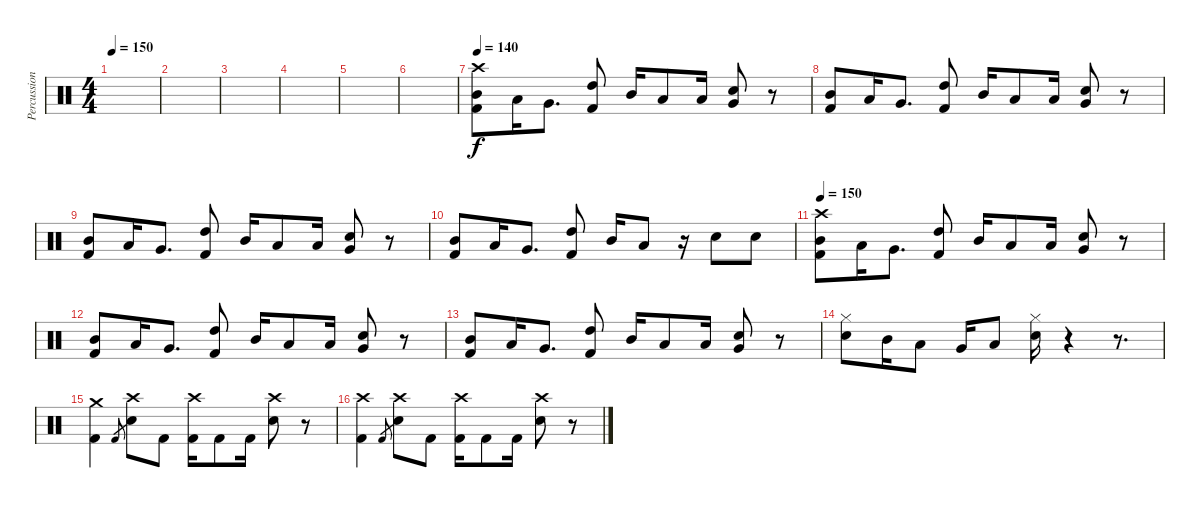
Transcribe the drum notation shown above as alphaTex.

\track ("Percussion" "Percussion") {instrument percussion}
\staff {score}
\articulation defaults
\ts (4 4)
\tempo 150
\clef neutral
\ks c
|
|
|
|
|
|
\tempo 140
("Crash high (hit)" "Mid Tom (hit)" "Kick (hit) 2").8 "Low Tom (hit)".16 "Very Low Tom (hit)".8{d} ("High Tom (hit)" "Kick (hit) 2").8 "Mid Tom (hit)".16 "Low Tom (hit)".8 "Low Tom (hit)".16 ("Very Low Tom (hit)" "Snare (hit) 2").8 r.8 |
("Mid Tom (hit)" "Kick (hit) 2").8 "Low Tom (hit)".16 "Very Low Tom (hit)".8{d} ("High Tom (hit)" "Kick (hit) 2").8 "Mid Tom (hit)".16 "Low Tom (hit)".8 "Low Tom (hit)".16 ("Very Low Tom (hit)" "Snare (hit) 2").8 r.8 |
("Mid Tom (hit)" "Kick (hit) 2").8 "Low Tom (hit)".16 "Very Low Tom (hit)".8{d} ("High Tom (hit)" "Kick (hit) 2").8 "Mid Tom (hit)".16 "Low Tom (hit)".8 "Low Tom (hit)".16 ("Very Low Tom (hit)" "Snare (hit) 2").8 r.8 |
("Mid Tom (hit)" "Kick (hit) 2").8 "Low Tom (hit)".16 "Very Low Tom (hit)".8{d} ("High Tom (hit)" "Kick (hit) 2").8 "Mid Tom (hit)".16 "Low Tom (hit)".8 r.16 "Snare (hit) 2".8 "Snare (hit) 2".8 |
\tempo 150
("Crash high (hit)" "Mid Tom (hit)" "Kick (hit) 2").8 "Low Tom (hit)".16 "Very Low Tom (hit)".8{d} ("High Tom (hit)" "Kick (hit) 2").8 "Mid Tom (hit)".16 "Low Tom (hit)".8 "Low Tom (hit)".16 ("Very Low Tom (hit)" "Snare (hit) 2").8 r.8 |
("Mid Tom (hit)" "Kick (hit) 2").8 "Low Tom (hit)".16 "Very Low Tom (hit)".8{d} ("High Tom (hit)" "Kick (hit) 2").8 "Mid Tom (hit)".16 "Low Tom (hit)".8 "Low Tom (hit)".16 ("Very Low Tom (hit)" "Snare (hit) 2").8 r.8 |
("Mid Tom (hit)" "Kick (hit) 2").8 "Low Tom (hit)".16 "Very Low Tom (hit)".8{d} ("High Tom (hit)" "Kick (hit) 2").8 "Mid Tom (hit)".16 "Low Tom (hit)".8 "Low Tom (hit)".16 ("Very Low Tom (hit)" "Snare (hit) 2").8 r.8 |
("Hi-Hat (closed)" "Snare (hit) 2").8 "Mid Tom (hit)".16 "Low Tom (hit)".8 "Very Low Tom (hit)".16 "Low Floor Tom (hit)".8 ("Hi-Hat (closed)" "Snare (hit) 2").16 r.4 r.8{d} |
("Crash medium (hit)" "Kick (hit) 2").4 "Kick (hit) 2".8{gr} ("Crash high (hit)" "Snare (hit) 2").8 "Kick (hit) 2".8 ("Crash high (hit)" "Kick (hit) 2").16 "Kick (hit) 2".8 "Kick (hit) 2".16 ("Crash high (hit)" "Snare (hit) 2").8 r.8 |
("Crash high (hit)" "Kick (hit) 2").4 "Kick (hit) 2".8{gr} ("Crash high (hit)" "Snare (hit) 2").8 "Kick (hit) 2".8 ("Crash high (hit)" "Kick (hit) 2").16 "Kick (hit) 2".8 "Kick (hit) 2".16 ("Crash high (hit)" "Snare (hit) 2").8 r.8
